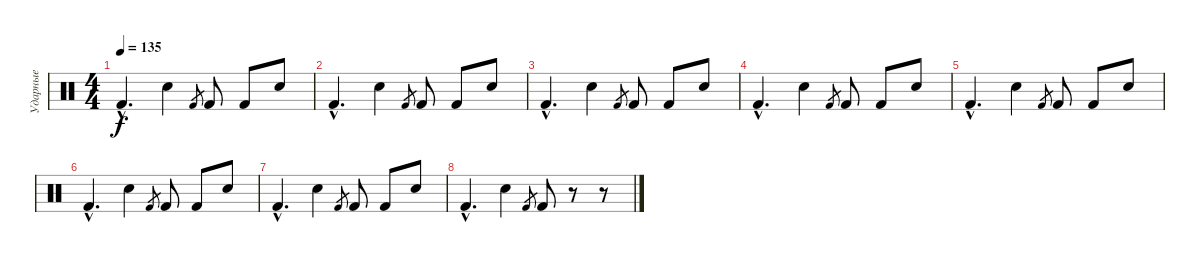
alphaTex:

\track ("Ударные" "Ударные") {instrument percussion}
\staff {score}
\articulation defaults
\ts (4 4)
\tempo 135
\clef neutral
\ks c "Kick (hit) 2"{hac}.4{d dy f} "Hand Clap (hit)".4 "Kick (hit) 2".8{gr} "Kick (hit) 2".8 "Kick (hit) 2".8 "Hand Clap (hit)".8
|
"Kick (hit) 2"{hac}.4{d} "Hand Clap (hit)".4 "Kick (hit) 2".8{gr} "Kick (hit) 2".8 "Kick (hit) 2".8 "Hand Clap (hit)".8 |
"Kick (hit) 2"{hac}.4{d} "Hand Clap (hit)".4 "Kick (hit) 2".8{gr} "Kick (hit) 2".8 "Kick (hit) 2".8 "Hand Clap (hit)".8 |
"Kick (hit) 2"{hac}.4{d} "Hand Clap (hit)".4 "Kick (hit) 2".8{gr} "Kick (hit) 2".8 "Kick (hit) 2".8 "Hand Clap (hit)".8 |
"Kick (hit) 2"{hac}.4{d} "Hand Clap (hit)".4 "Kick (hit) 2".8{gr} "Kick (hit) 2".8 "Kick (hit) 2".8 "Hand Clap (hit)".8 |
"Kick (hit) 2"{hac}.4{d} "Hand Clap (hit)".4 "Kick (hit) 2".8{gr} "Kick (hit) 2".8 "Kick (hit) 2".8 "Hand Clap (hit)".8 |
"Kick (hit) 2"{hac}.4{d} "Hand Clap (hit)".4 "Kick (hit) 2".8{gr} "Kick (hit) 2".8 "Kick (hit) 2".8 "Hand Clap (hit)".8 |
"Kick (hit) 2"{hac}.4{d} "Hand Clap (hit)".4 "Kick (hit) 2".8{gr} "Kick (hit) 2".8 r.8 r.8
